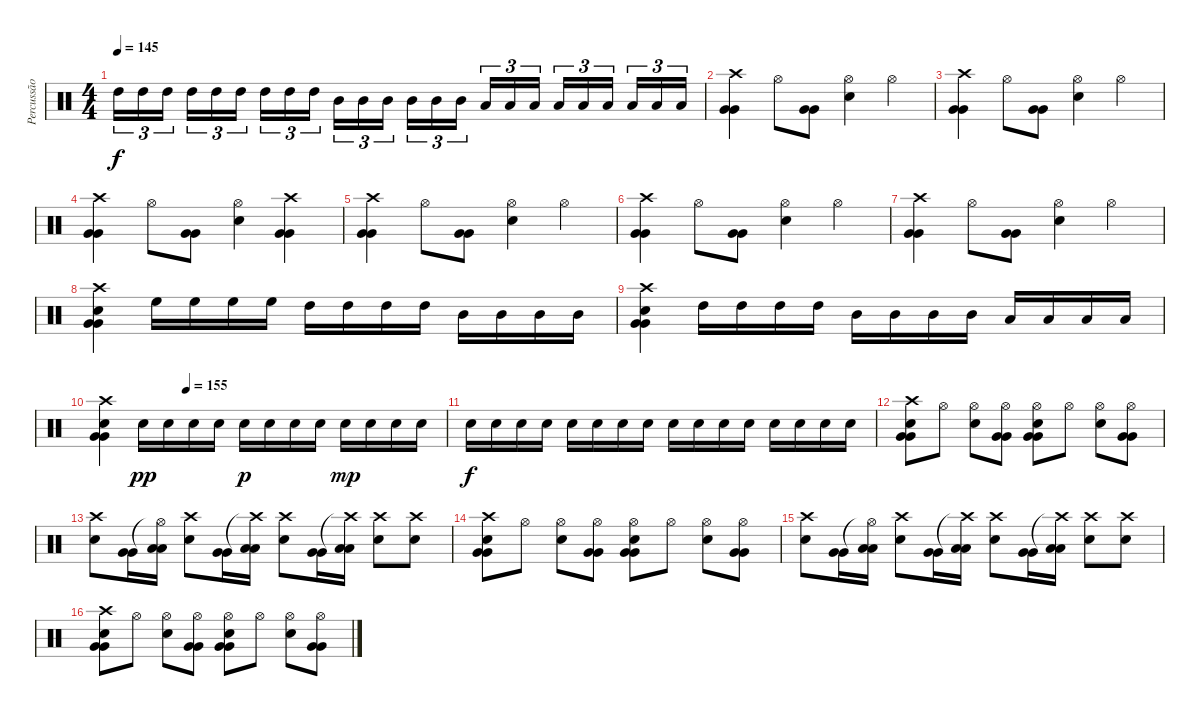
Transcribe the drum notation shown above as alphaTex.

\track ("Percussão" "Percussão") {instrument percussion}
\staff {score}
\articulation defaults
\ts (4 4)
\tempo 145
\clef neutral
\ks c "High Tom (hit)".16{tu (3 2) dy f} "High Tom (hit)".16{tu (3 2)} "High Tom (hit)".16{tu (3 2)} "High Tom (hit)".16{tu (3 2)} "High Tom (hit)".16{tu (3 2)} "High Tom (hit)".16{tu (3 2)} "High Tom (hit)".16{tu (3 2)} "High Tom (hit)".16{tu (3 2)} "High Tom (hit)".16{tu (3 2)} "Mid Tom (hit)".16{tu (3 2)} "Mid Tom (hit)".16{tu (3 2)} "Mid Tom (hit)".16{tu (3 2)} "Mid Tom (hit)".16{tu (3 2)} "Mid Tom (hit)".16{tu (3 2)} "Mid Tom (hit)".16{tu (3 2)} "Low Tom (hit)".16{tu (3 2)} "Low Tom (hit)".16{tu (3 2)} "Low Tom (hit)".16{tu (3 2)} "Low Tom (hit)".16{tu (3 2)} "Low Tom (hit)".16{tu (3 2)} "Low Tom (hit)".16{tu (3 2)} "Low Tom (hit)".16{tu (3 2)} "Low Tom (hit)".16{tu (3 2)} "Low Tom (hit)".16{tu (3 2)}
|
("Crash high (hit)" "Very Low Tom (hit)" "Very Low Tom (hit)").4 "Hi-Hat (open)".8 ("Very Low Tom (hit)" "Very Low Tom (hit)").8 ("Hi-Hat (open)" "Electric Snare (hit)").4 "Hi-Hat (open)".4 |
("Crash high (hit)" "Very Low Tom (hit)" "Very Low Tom (hit)").4 "Hi-Hat (open)".8 ("Very Low Tom (hit)" "Very Low Tom (hit)").8 ("Hi-Hat (open)" "Electric Snare (hit)").4 "Hi-Hat (open)".4 |
("Crash high (hit)" "Very Low Tom (hit)" "Very Low Tom (hit)").4 "Hi-Hat (open)".8 ("Very Low Tom (hit)" "Very Low Tom (hit)").8 ("Hi-Hat (open)" "Electric Snare (hit)").4 ("Crash high (hit)" "Very Low Tom (hit)" "Very Low Tom (hit)").4 |
("Crash high (hit)" "Very Low Tom (hit)" "Very Low Tom (hit)").4 "Hi-Hat (open)".8 ("Very Low Tom (hit)" "Very Low Tom (hit)").8 ("Hi-Hat (open)" "Electric Snare (hit)").4 "Hi-Hat (open)".4 |
("Crash high (hit)" "Very Low Tom (hit)" "Very Low Tom (hit)").4 "Hi-Hat (open)".8 ("Very Low Tom (hit)" "Very Low Tom (hit)").8 ("Hi-Hat (open)" "Electric Snare (hit)").4 "Hi-Hat (open)".4 |
("Crash high (hit)" "Very Low Tom (hit)" "Very Low Tom (hit)").4 "Hi-Hat (open)".8 ("Very Low Tom (hit)" "Very Low Tom (hit)").8 ("Hi-Hat (open)" "Electric Snare (hit)").4 "Hi-Hat (open)".4 |
("Crash high (hit)" "Electric Snare (hit)" "Very Low Tom (hit)" "Very Low Tom (hit)").4 "High Floor Tom (hit)".16 "High Floor Tom (hit)".16 "High Floor Tom (hit)".16 "High Floor Tom (hit)".16 "High Tom (hit)".16 "High Tom (hit)".16 "High Tom (hit)".16 "High Tom (hit)".16 "Mid Tom (hit)".16 "Mid Tom (hit)".16 "Mid Tom (hit)".16 "Mid Tom (hit)".16 |
("Crash high (hit)" "Electric Snare (hit)" "Very Low Tom (hit)" "Very Low Tom (hit)").4 "High Tom (hit)".16 "High Tom (hit)".16 "High Tom (hit)".16 "High Tom (hit)".16 "Mid Tom (hit)".16 "Mid Tom (hit)".16 "Mid Tom (hit)".16 "Mid Tom (hit)".16 "Low Tom (hit)".16 "Low Tom (hit)".16 "Low Tom (hit)".16 "Low Tom (hit)".16 |
\tempo (155 0.25)
("Crash high (hit)" "Electric Snare (hit)" "Very Low Tom (hit)" "Very Low Tom (hit)").4 "Electric Snare (hit)".16{dy pp} "Electric Snare (hit)".16 "Electric Snare (hit)".16 "Electric Snare (hit)".16 "Electric Snare (hit)".16{dy p} "Electric Snare (hit)".16 "Electric Snare (hit)".16 "Electric Snare (hit)".16 "Electric Snare (hit)".16{dy mp} "Electric Snare (hit)".16 "Electric Snare (hit)".16 "Electric Snare (hit)".16 |
"Electric Snare (hit)".16{dy f} "Electric Snare (hit)".16 "Electric Snare (hit)".16 "Electric Snare (hit)".16 "Electric Snare (hit)".16 "Electric Snare (hit)".16 "Electric Snare (hit)".16 "Electric Snare (hit)".16 "Electric Snare (hit)".16 "Electric Snare (hit)".16 "Electric Snare (hit)".16 "Electric Snare (hit)".16 "Electric Snare (hit)".16 "Electric Snare (hit)".16 "Electric Snare (hit)".16 "Electric Snare (hit)".16 |
("Crash high (hit)" "Electric Snare (hit)" "Very Low Tom (hit)" "Very Low Tom (hit)").8 "Hi-Hat (open)".8 ("Hi-Hat (open)" "Electric Snare (hit)").8 ("Hi-Hat (open)" "Very Low Tom (hit)" "Very Low Tom (hit)").8 ("Hi-Hat (open)" "Electric Snare (hit)" "Very Low Tom (hit)" "Very Low Tom (hit)").8 "Hi-Hat (open)".8 ("Hi-Hat (open)" "Electric Snare (hit)").8 ("Hi-Hat (open)" "Very Low Tom (hit)" "Very Low Tom (hit)").8 |
("Crash high (hit)" "Electric Snare (hit)").8 ("Very Low Tom (hit)" "Very Low Tom (hit)").16 ("Hi-Hat (open)"{t} "Low Floor Tom (hit)" "Low Floor Tom (hit)").16 ("Crash high (hit)" "Electric Snare (hit)").8 ("Very Low Tom (hit)" "Very Low Tom (hit)").16 ("Crash high (hit)"{t} "Low Floor Tom (hit)" "Low Floor Tom (hit)").16 ("Crash high (hit)" "Electric Snare (hit)").8 ("Very Low Tom (hit)" "Very Low Tom (hit)").16 ("Crash high (hit)"{t} "Low Floor Tom (hit)" "Low Floor Tom (hit)").16 ("Crash high (hit)" "Electric Snare (hit)").8 ("Crash high (hit)" "Electric Snare (hit)").8 |
("Crash high (hit)" "Electric Snare (hit)" "Very Low Tom (hit)" "Very Low Tom (hit)").8 "Hi-Hat (open)".8 ("Hi-Hat (open)" "Electric Snare (hit)").8 ("Hi-Hat (open)" "Very Low Tom (hit)" "Very Low Tom (hit)").8 ("Hi-Hat (open)" "Electric Snare (hit)" "Very Low Tom (hit)" "Very Low Tom (hit)").8 "Hi-Hat (open)".8 ("Hi-Hat (open)" "Electric Snare (hit)").8 ("Hi-Hat (open)" "Very Low Tom (hit)" "Very Low Tom (hit)").8 |
("Crash high (hit)" "Electric Snare (hit)").8 ("Very Low Tom (hit)" "Very Low Tom (hit)").16 ("Hi-Hat (open)"{t} "Low Floor Tom (hit)" "Low Floor Tom (hit)").16 ("Crash high (hit)" "Electric Snare (hit)").8 ("Very Low Tom (hit)" "Very Low Tom (hit)").16 ("Crash high (hit)"{t} "Low Floor Tom (hit)" "Low Floor Tom (hit)").16 ("Crash high (hit)" "Electric Snare (hit)").8 ("Very Low Tom (hit)" "Very Low Tom (hit)").16 ("Crash high (hit)"{t} "Low Floor Tom (hit)" "Low Floor Tom (hit)").16 ("Crash high (hit)" "Electric Snare (hit)").8 ("Crash high (hit)" "Electric Snare (hit)").8 |
("Crash high (hit)" "Electric Snare (hit)" "Very Low Tom (hit)" "Very Low Tom (hit)").8 "Hi-Hat (open)".8 ("Hi-Hat (open)" "Electric Snare (hit)").8 ("Hi-Hat (open)" "Very Low Tom (hit)" "Very Low Tom (hit)").8 ("Hi-Hat (open)" "Electric Snare (hit)" "Very Low Tom (hit)" "Very Low Tom (hit)").8 "Hi-Hat (open)".8 ("Hi-Hat (open)" "Electric Snare (hit)").8 ("Hi-Hat (open)" "Very Low Tom (hit)" "Very Low Tom (hit)").8
